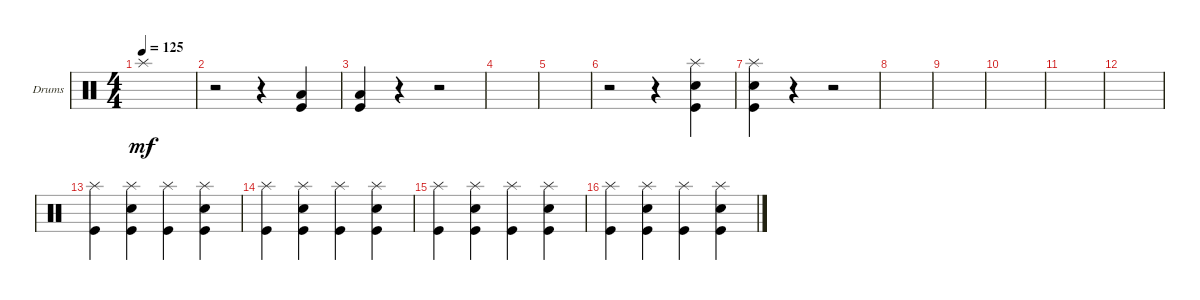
\bracketExtendMode groupsimilarinstruments
\firstSystemTrackNameOrientation horizontal
\otherSystemsTrackNameOrientation horizontal
\track ("Drumkit" "Drums") {instrument percussion}
\staff {score}
\articulation defaults
\ts (4 4)
\tempo 125
\clef neutral
\ks c "Splash (hit)".1{dy mf}
|
r.2 r.4 ("Kick (hit)" "Low Tom (hit)").4 |
("Kick (hit)" "Low Tom (hit)").4 r.4 r.2 |
|
|
r.2 r.4 ("Kick (hit)" "Snare (hit) 2" "Splash (hit)").4 |
("Kick (hit)" "Snare (hit) 2" "Splash (hit)").4 r.4 r.2 |
|
|
|
|
|
("Splash (hit)" "Kick (hit)").4 ("Splash (hit)" "Kick (hit)" "Snare (hit) 2").4 ("Splash (hit)" "Kick (hit)").4 ("Splash (hit)" "Kick (hit)" "Snare (hit) 2").4 |
("Splash (hit)" "Kick (hit)").4 ("Splash (hit)" "Kick (hit)" "Snare (hit) 2").4 ("Splash (hit)" "Kick (hit)").4 ("Splash (hit)" "Kick (hit)" "Snare (hit) 2").4 |
("Splash (hit)" "Kick (hit)").4 ("Splash (hit)" "Kick (hit)" "Snare (hit) 2").4 ("Splash (hit)" "Kick (hit)").4 ("Splash (hit)" "Kick (hit)" "Snare (hit) 2").4 |
("Splash (hit)" "Kick (hit)").4 ("Splash (hit)" "Kick (hit)" "Snare (hit) 2").4 ("Splash (hit)" "Kick (hit)").4 ("Splash (hit)" "Kick (hit)" "Snare (hit) 2").4
